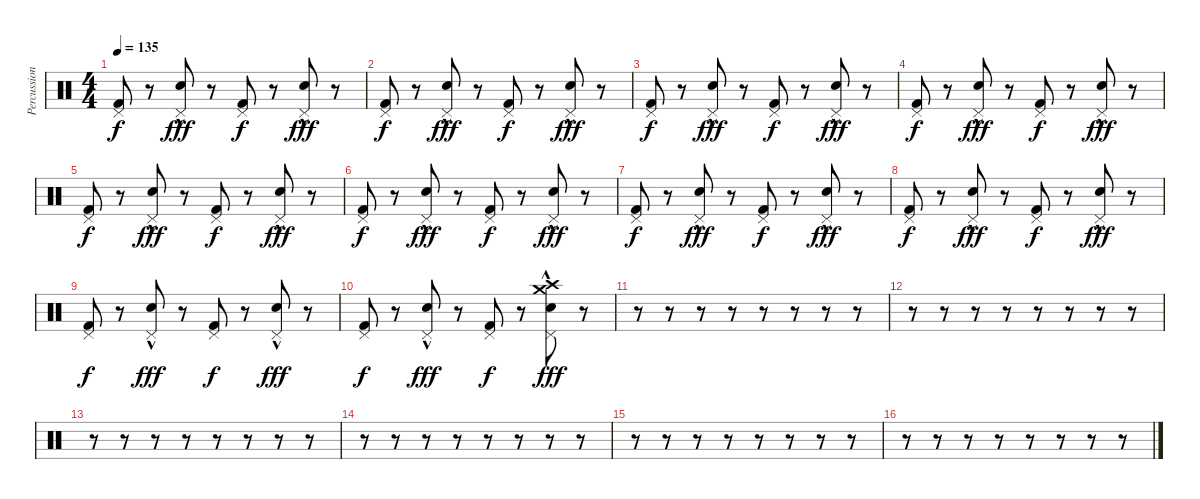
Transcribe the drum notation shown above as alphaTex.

\track ("Percussion" "Percussion") {instrument percussion}
\staff {score}
\articulation defaults
\ts (4 4)
\tempo 135
\clef neutral
\ks c
("Kick (hit) 2" "Pedal Hi-Hat (hit)").8{dy f} r.8 ("Snare (hit) 2"{hac} "Pedal Hi-Hat (hit)").8{dy fff} r.8 ("Kick (hit) 2" "Pedal Hi-Hat (hit)").8{dy f} r.8 ("Snare (hit) 2"{hac} "Pedal Hi-Hat (hit)").8{dy fff} r.8 |
("Kick (hit) 2" "Pedal Hi-Hat (hit)").8{dy f} r.8 ("Snare (hit) 2"{hac} "Pedal Hi-Hat (hit)").8{dy fff} r.8 ("Kick (hit) 2" "Pedal Hi-Hat (hit)").8{dy f} r.8 ("Snare (hit) 2"{hac} "Pedal Hi-Hat (hit)").8{dy fff} r.8 |
("Kick (hit) 2" "Pedal Hi-Hat (hit)").8{dy f} r.8 ("Snare (hit) 2"{hac} "Pedal Hi-Hat (hit)").8{dy fff} r.8 ("Kick (hit) 2" "Pedal Hi-Hat (hit)").8{dy f} r.8 ("Snare (hit) 2"{hac} "Pedal Hi-Hat (hit)").8{dy fff} r.8 |
("Kick (hit) 2" "Pedal Hi-Hat (hit)").8{dy f} r.8 ("Snare (hit) 2"{hac} "Pedal Hi-Hat (hit)").8{dy fff} r.8 ("Kick (hit) 2" "Pedal Hi-Hat (hit)").8{dy f} r.8 ("Snare (hit) 2"{hac} "Pedal Hi-Hat (hit)").8{dy fff} r.8 |
("Kick (hit) 2" "Pedal Hi-Hat (hit)").8{dy f} r.8 ("Snare (hit) 2"{hac} "Pedal Hi-Hat (hit)").8{dy fff} r.8 ("Kick (hit) 2" "Pedal Hi-Hat (hit)").8{dy f} r.8 ("Snare (hit) 2"{hac} "Pedal Hi-Hat (hit)").8{dy fff} r.8 |
("Kick (hit) 2" "Pedal Hi-Hat (hit)").8{dy f} r.8 ("Snare (hit) 2"{hac} "Pedal Hi-Hat (hit)").8{dy fff} r.8 ("Kick (hit) 2" "Pedal Hi-Hat (hit)").8{dy f} r.8 ("Snare (hit) 2"{hac} "Pedal Hi-Hat (hit)").8{dy fff} r.8 |
("Kick (hit) 2" "Pedal Hi-Hat (hit)").8{dy f} r.8 ("Snare (hit) 2"{hac} "Pedal Hi-Hat (hit)").8{dy fff} r.8 ("Kick (hit) 2" "Pedal Hi-Hat (hit)").8{dy f} r.8 ("Snare (hit) 2"{hac} "Pedal Hi-Hat (hit)").8{dy fff} r.8 |
("Kick (hit) 2" "Pedal Hi-Hat (hit)").8{dy f} r.8 ("Snare (hit) 2"{hac} "Pedal Hi-Hat (hit)").8{dy fff} r.8 ("Kick (hit) 2" "Pedal Hi-Hat (hit)").8{dy f} r.8 ("Snare (hit) 2"{hac} "Pedal Hi-Hat (hit)").8{dy fff} r.8 |
("Kick (hit) 2" "Pedal Hi-Hat (hit)").8{dy f} r.8 ("Snare (hit) 2"{hac} "Pedal Hi-Hat (hit)").8{dy fff} r.8 ("Kick (hit) 2" "Pedal Hi-Hat (hit)").8{dy f} r.8 ("Snare (hit) 2"{hac} "Pedal Hi-Hat (hit)").8{dy fff} r.8 |
("Kick (hit) 2" "Pedal Hi-Hat (hit)").8{dy f} r.8 ("Snare (hit) 2"{hac} "Pedal Hi-Hat (hit)").8{dy fff} r.8 ("Kick (hit) 2" "Pedal Hi-Hat (hit)").8{dy f} r.8 ("Snare (hit) 2"{hac} "Pedal Hi-Hat (hit)" "Crash high (hit)" "Crash medium (hit)").8{dy fff} r.8 |
r.8 r.8 r.8 r.8 r.8 r.8 r.8 r.8 |
r.8 r.8 r.8 r.8 r.8 r.8 r.8 r.8 |
r.8 r.8 r.8 r.8 r.8 r.8 r.8 r.8 |
r.8 r.8 r.8 r.8 r.8 r.8 r.8 r.8 |
r.8 r.8 r.8 r.8 r.8 r.8 r.8 r.8 |
r.8 r.8 r.8 r.8 r.8 r.8 r.8 r.8
